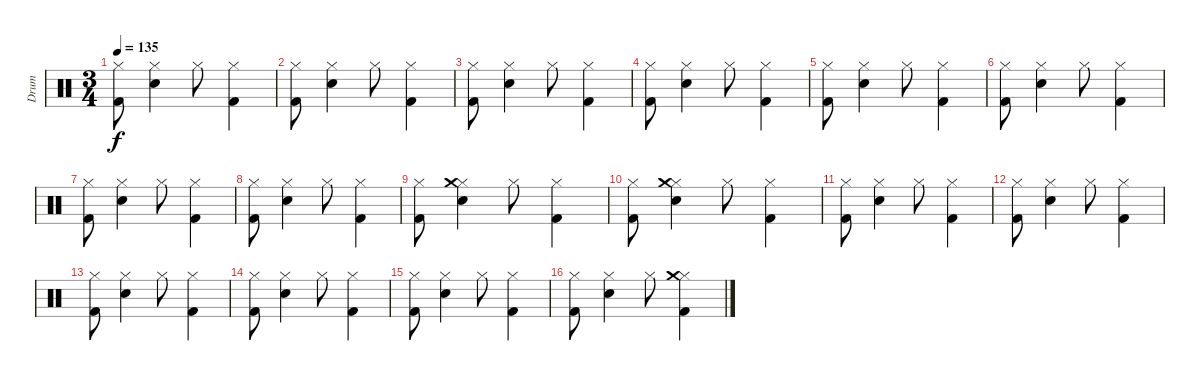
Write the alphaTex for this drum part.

\track ("Drum" "Drum") {instrument percussion}
\staff {score}
\articulation defaults
\ts (3 4)
\tempo 135
\clef neutral
\ks c
("Hi-Hat (closed)" "Kick (hit) 2").8{dy f} ("Hi-Hat (closed)" "Snare (hit) 2").4 "Hi-Hat (closed)".8 ("Hi-Hat (closed)" "Kick (hit) 2").4 |
("Hi-Hat (closed)" "Kick (hit) 2").8 ("Hi-Hat (closed)" "Snare (hit) 2").4 "Hi-Hat (closed)".8 ("Hi-Hat (closed)" "Kick (hit) 2").4 |
("Hi-Hat (closed)" "Kick (hit) 2").8 ("Hi-Hat (closed)" "Snare (hit) 2").4 "Hi-Hat (closed)".8 ("Hi-Hat (closed)" "Kick (hit) 2").4 |
("Hi-Hat (closed)" "Kick (hit) 2").8 ("Hi-Hat (closed)" "Snare (hit) 2").4 "Hi-Hat (closed)".8 ("Hi-Hat (closed)" "Kick (hit) 2").4 |
("Hi-Hat (closed)" "Kick (hit) 2").8 ("Hi-Hat (closed)" "Snare (hit) 2").4 "Hi-Hat (closed)".8 ("Hi-Hat (closed)" "Kick (hit) 2").4 |
("Hi-Hat (closed)" "Kick (hit) 2").8 ("Hi-Hat (closed)" "Snare (hit) 2").4 "Hi-Hat (closed)".8 ("Hi-Hat (closed)" "Kick (hit) 2").4 |
("Hi-Hat (closed)" "Kick (hit) 2").8 ("Hi-Hat (closed)" "Snare (hit) 2").4 "Hi-Hat (closed)".8 ("Hi-Hat (closed)" "Kick (hit) 2").4 |
("Hi-Hat (closed)" "Kick (hit) 2").8 ("Hi-Hat (closed)" "Snare (hit) 2").4 "Hi-Hat (closed)".8 ("Hi-Hat (closed)" "Kick (hit) 2").4 |
("Hi-Hat (closed)" "Kick (hit) 2").8 ("Hi-Hat (closed)" "Snare (hit) 2" "Crash medium (hit)").4 "Hi-Hat (closed)".8 ("Hi-Hat (closed)" "Kick (hit) 2").4 |
("Hi-Hat (closed)" "Kick (hit) 2").8 ("Hi-Hat (closed)" "Snare (hit) 2" "Crash medium (hit)").4 "Hi-Hat (closed)".8 ("Hi-Hat (closed)" "Kick (hit) 2").4 |
("Hi-Hat (closed)" "Kick (hit) 2").8 ("Hi-Hat (closed)" "Snare (hit) 2").4 "Hi-Hat (closed)".8 ("Hi-Hat (closed)" "Kick (hit) 2").4 |
("Hi-Hat (closed)" "Kick (hit) 2").8 ("Hi-Hat (closed)" "Snare (hit) 2").4 "Hi-Hat (closed)".8 ("Hi-Hat (closed)" "Kick (hit) 2").4 |
("Hi-Hat (closed)" "Kick (hit) 2").8 ("Hi-Hat (closed)" "Snare (hit) 2").4 "Hi-Hat (closed)".8 ("Hi-Hat (closed)" "Kick (hit) 2").4 |
("Hi-Hat (closed)" "Kick (hit) 2").8 ("Hi-Hat (closed)" "Snare (hit) 2").4 "Hi-Hat (closed)".8 ("Hi-Hat (closed)" "Kick (hit) 2").4 |
("Hi-Hat (closed)" "Kick (hit) 2").8 ("Hi-Hat (closed)" "Snare (hit) 2").4 "Hi-Hat (closed)".8 ("Hi-Hat (closed)" "Kick (hit) 2").4 |
("Hi-Hat (closed)" "Kick (hit) 2").8 ("Hi-Hat (closed)" "Snare (hit) 2").4 "Hi-Hat (closed)".8 ("Hi-Hat (closed)" "Crash medium (hit)" "Kick (hit) 2").4
